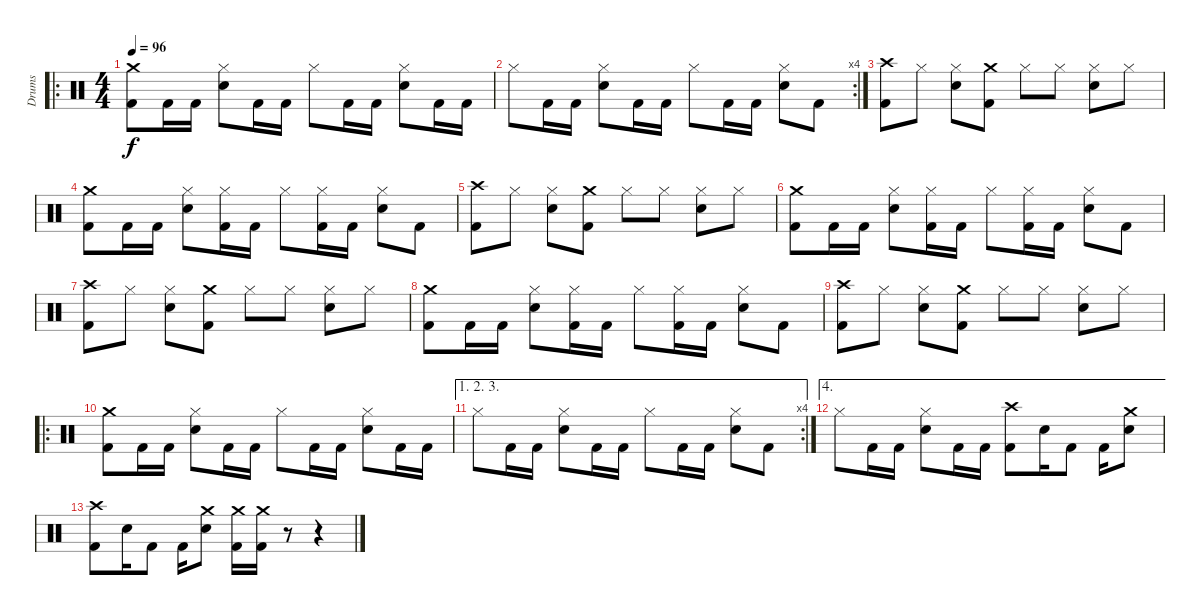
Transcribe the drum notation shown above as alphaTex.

\track ("Drums" "Drums") {instrument percussion}
\staff {score}
\articulation defaults
\ro
\ts (4 4)
\tempo 96
\clef neutral
\ks c
("Crash medium (hit)" "Kick (hit) 2").8{dy f} "Kick (hit) 2".16 "Kick (hit) 2".16 ("Hi-Hat (closed)" "Snare (hit) 2").8 "Kick (hit) 2".16 "Kick (hit) 2".16 "Hi-Hat (closed)".8 "Kick (hit) 2".16 "Kick (hit) 2".16 ("Hi-Hat (closed)" "Snare (hit) 2").8 "Kick (hit) 2".16 "Kick (hit) 2".16 |
\rc 4 "Hi-Hat (closed)".8 "Kick (hit) 2".16 "Kick (hit) 2".16
("Hi-Hat (closed)" "Snare (hit) 2").8 "Kick (hit) 2".16 "Kick (hit) 2".16 "Hi-Hat (closed)".8 "Kick (hit) 2".16 "Kick (hit) 2".16 ("Hi-Hat (closed)" "Snare (hit) 2").8 "Kick (hit) 2".8 |
("Crash high (hit)" "Kick (hit) 2").8 "Hi-Hat (closed)".8 ("Hi-Hat (closed)" "Snare (hit) 2").8 ("Crash medium (hit)" "Kick (hit) 2").8 "Hi-Hat (closed)".8 "Hi-Hat (closed)".8 ("Hi-Hat (closed)" "Snare (hit) 2").8 "Hi-Hat (closed)".8 |
("Crash medium (hit)" "Kick (hit) 2").8 "Kick (hit) 2".16 "Kick (hit) 2".16 ("Hi-Hat (closed)" "Snare (hit) 2").8 ("Hi-Hat (closed)" "Kick (hit) 2").16 "Kick (hit) 2".16 "Hi-Hat (closed)".8 ("Hi-Hat (closed)" "Kick (hit) 2").16 "Kick (hit) 2".16 ("Hi-Hat (closed)" "Snare (hit) 2").8 "Kick (hit) 2".8 |
("Crash high (hit)" "Kick (hit) 2").8 "Hi-Hat (closed)".8 ("Hi-Hat (closed)" "Snare (hit) 2").8 ("Crash medium (hit)" "Kick (hit) 2").8 "Hi-Hat (closed)".8 "Hi-Hat (closed)".8 ("Hi-Hat (closed)" "Snare (hit) 2").8 "Hi-Hat (closed)".8 |
("Crash medium (hit)" "Kick (hit) 2").8 "Kick (hit) 2".16 "Kick (hit) 2".16 ("Hi-Hat (closed)" "Snare (hit) 2").8 ("Hi-Hat (closed)" "Kick (hit) 2").16 "Kick (hit) 2".16 "Hi-Hat (closed)".8 ("Hi-Hat (closed)" "Kick (hit) 2").16 "Kick (hit) 2".16 ("Hi-Hat (closed)" "Snare (hit) 2").8 "Kick (hit) 2".8 |
("Crash high (hit)" "Kick (hit) 2").8 "Hi-Hat (closed)".8 ("Hi-Hat (closed)" "Snare (hit) 2").8 ("Crash medium (hit)" "Kick (hit) 2").8 "Hi-Hat (closed)".8 "Hi-Hat (closed)".8 ("Hi-Hat (closed)" "Snare (hit) 2").8 "Hi-Hat (closed)".8 |
("Crash medium (hit)" "Kick (hit) 2").8 "Kick (hit) 2".16 "Kick (hit) 2".16 ("Hi-Hat (closed)" "Snare (hit) 2").8 ("Hi-Hat (closed)" "Kick (hit) 2").16 "Kick (hit) 2".16 "Hi-Hat (closed)".8 ("Hi-Hat (closed)" "Kick (hit) 2").16 "Kick (hit) 2".16 ("Hi-Hat (closed)" "Snare (hit) 2").8 "Kick (hit) 2".8 |
("Crash high (hit)" "Kick (hit) 2").8 "Hi-Hat (closed)".8 ("Hi-Hat (closed)" "Snare (hit) 2").8 ("Crash medium (hit)" "Kick (hit) 2").8 "Hi-Hat (closed)".8 "Hi-Hat (closed)".8 ("Hi-Hat (closed)" "Snare (hit) 2").8 "Hi-Hat (closed)".8 |
\ro
("Crash medium (hit)" "Kick (hit) 2").8 "Kick (hit) 2".16 "Kick (hit) 2".16 ("Hi-Hat (closed)" "Snare (hit) 2").8 "Kick (hit) 2".16 "Kick (hit) 2".16 "Hi-Hat (closed)".8 "Kick (hit) 2".16 "Kick (hit) 2".16 ("Hi-Hat (closed)" "Snare (hit) 2").8 "Kick (hit) 2".16 "Kick (hit) 2".16 |
\ae (1 2 3)
\rc 4 "Hi-Hat (closed)".8 "Kick (hit) 2".16 "Kick (hit) 2".16
("Hi-Hat (closed)" "Snare (hit) 2").8 "Kick (hit) 2".16 "Kick (hit) 2".16 "Hi-Hat (closed)".8 "Kick (hit) 2".16 "Kick (hit) 2".16 ("Hi-Hat (closed)" "Snare (hit) 2").8 "Kick (hit) 2".8 |
\ae 4 "Hi-Hat (closed)".8 "Kick (hit) 2".16 "Kick (hit) 2".16
("Hi-Hat (closed)" "Snare (hit) 2").8 "Kick (hit) 2".16 "Kick (hit) 2".16 ("Crash high (hit)" "Kick (hit) 2").8 "Snare (hit) 2".16 "Kick (hit) 2".8 "Kick (hit) 2".16 ("Crash medium (hit)" "Snare (hit) 2").8 |
("Crash high (hit)" "Kick (hit) 2").8 "Snare (hit) 2".16 "Kick (hit) 2".8 "Kick (hit) 2".16 ("Crash medium (hit)" "Snare (hit) 2").8 ("Crash medium (hit)" "Kick (hit) 2").16 ("Crash medium (hit)" "Kick (hit) 2").16 r.8 r.4
